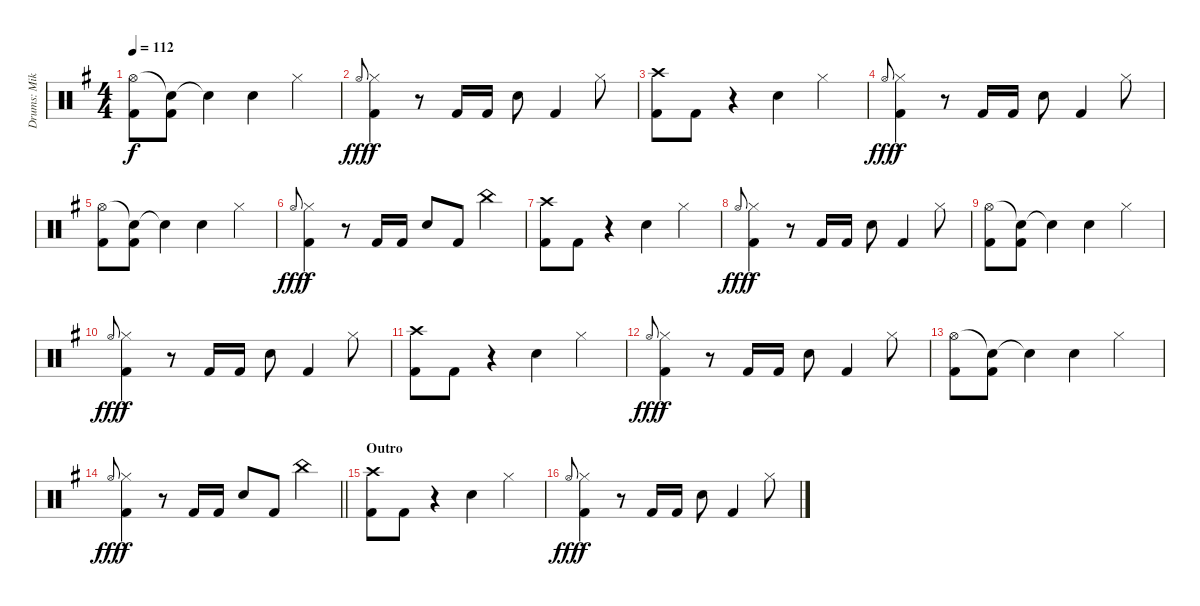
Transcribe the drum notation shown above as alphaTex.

\track ("Drums: Mike" "Drums: Mik") {instrument percussion}
\staff {score}
\articulation defaults
\ts (4 4)
\tempo 112
\clef neutral
\ks g
("Hi-Hat (open)" "Kick (hit) 2").8{dy f} ("Snare (hit)"{t} "Kick (hit) 2").8 "Snare (hit)"{t}.4 "Electric Snare (hit)".4 "Hi-Hat (closed)".4 |
"Hi-Hat (open)".8{gr onbeat dy fff} ("Hi-Hat (closed)" "Kick (hit) 2").4{dy f} r.8 "Kick (hit) 2".16 "Kick (hit) 2".16 "Electric Snare (hit)".8 "Kick (hit) 2".4 "Hi-Hat (closed)".8 |
("Crash high (hit)" "Kick (hit) 2").8 "Kick (hit) 2".8 r.4 "Electric Snare (hit)".4 "Hi-Hat (closed)".4 |
"Hi-Hat (open)".8{gr onbeat dy fff} ("Hi-Hat (closed)" "Kick (hit) 2").4{dy f} r.8 "Kick (hit) 2".16 "Kick (hit) 2".16 "Electric Snare (hit)".8 "Kick (hit) 2".4 "Hi-Hat (closed)".8 |
("Hi-Hat (open)" "Kick (hit) 2").8 ("Snare (hit)"{t} "Kick (hit) 2").8 "Snare (hit)"{t}.4 "Electric Snare (hit)".4 "Hi-Hat (closed)".4 |
"Hi-Hat (open)".8{gr onbeat dy fff} ("Hi-Hat (closed)" "Kick (hit) 2").4{dy f} r.8 "Kick (hit) 2".16 "Kick (hit) 2".16 "Electric Snare (hit)".8 "Kick (hit) 2".8 "China (hit)".4 |
("Crash high (hit)" "Kick (hit) 2").8 "Kick (hit) 2".8 r.4 "Electric Snare (hit)".4 "Hi-Hat (closed)".4 |
"Hi-Hat (open)".8{gr onbeat dy fff} ("Hi-Hat (closed)" "Kick (hit) 2").4{dy f} r.8 "Kick (hit) 2".16 "Kick (hit) 2".16 "Electric Snare (hit)".8 "Kick (hit) 2".4 "Hi-Hat (closed)".8 |
("Hi-Hat (open)" "Kick (hit) 2").8 ("Snare (hit)"{t} "Kick (hit) 2").8 "Snare (hit)"{t}.4 "Electric Snare (hit)".4 "Hi-Hat (closed)".4 |
"Hi-Hat (open)".8{gr onbeat dy fff} ("Hi-Hat (closed)" "Kick (hit) 2").4{dy f} r.8 "Kick (hit) 2".16 "Kick (hit) 2".16 "Electric Snare (hit)".8 "Kick (hit) 2".4 "Hi-Hat (closed)".8 |
("Crash high (hit)" "Kick (hit) 2").8 "Kick (hit) 2".8 r.4 "Electric Snare (hit)".4 "Hi-Hat (closed)".4 |
"Hi-Hat (open)".8{gr onbeat dy fff} ("Hi-Hat (closed)" "Kick (hit) 2").4{dy f} r.8 "Kick (hit) 2".16 "Kick (hit) 2".16 "Electric Snare (hit)".8 "Kick (hit) 2".4 "Hi-Hat (closed)".8 |
("Hi-Hat (open)" "Kick (hit) 2").8 ("Snare (hit)"{t} "Kick (hit) 2").8 "Snare (hit)"{t}.4 "Electric Snare (hit)".4 "Hi-Hat (closed)".4 |
\barLineRight lightlight "Hi-Hat (open)".8{gr onbeat dy fff}
("Hi-Hat (closed)" "Kick (hit) 2").4{dy f} r.8 "Kick (hit) 2".16 "Kick (hit) 2".16 "Electric Snare (hit)".8 "Kick (hit) 2".8 "China (hit)".4 |
\section ("" "Outro")
("Crash high (hit)" "Kick (hit) 2").8 "Kick (hit) 2".8 r.4 "Electric Snare (hit)".4 "Hi-Hat (closed)".4 |
"Hi-Hat (open)".8{gr onbeat dy fff} ("Hi-Hat (closed)" "Kick (hit) 2").4{dy f} r.8 "Kick (hit) 2".16 "Kick (hit) 2".16 "Electric Snare (hit)".8 "Kick (hit) 2".4 "Hi-Hat (closed)".8
